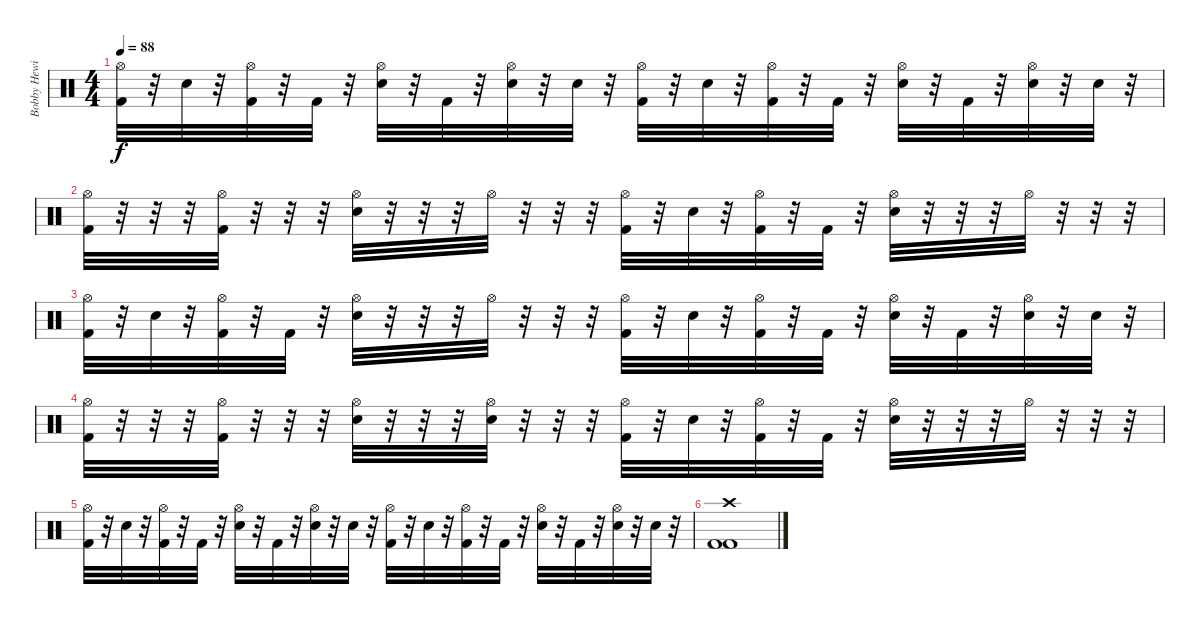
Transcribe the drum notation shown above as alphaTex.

\track ("Bobby Hewit - Drums" "Bobby Hewi") {instrument percussion}
\staff {score}
\articulation defaults
\ts (4 4)
\tempo 88
\clef neutral
\ks c
("Hi-Hat (open)" "Kick (hit) 2").32{dy f} r.32 "Electric Snare (hit)".32 r.32 ("Hi-Hat (open)" "Kick (hit) 2").32 r.32 "Kick (hit) 2".32 r.32 ("Hi-Hat (open)" "Electric Snare (hit)").32 r.32 "Kick (hit) 2".32 r.32 ("Hi-Hat (open)" "Electric Snare (hit)").32 r.32 "Electric Snare (hit)".32 r.32 ("Hi-Hat (open)" "Kick (hit) 2").32 r.32 "Electric Snare (hit)".32 r.32 ("Hi-Hat (open)" "Kick (hit) 2").32 r.32 "Kick (hit) 2".32 r.32 ("Hi-Hat (open)" "Electric Snare (hit)").32 r.32 "Kick (hit) 2".32 r.32 ("Hi-Hat (open)" "Electric Snare (hit)").32 r.32 "Electric Snare (hit)".32 r.32 |
("Hi-Hat (open)" "Kick (hit) 2").32 r.32 r.32 r.32 ("Hi-Hat (open)" "Kick (hit) 2").32 r.32 r.32 r.32 ("Hi-Hat (open)" "Electric Snare (hit)").32 r.32 r.32 r.32 "Hi-Hat (open)".32 r.32 r.32 r.32 ("Hi-Hat (open)" "Kick (hit) 2").32 r.32 "Electric Snare (hit)".32 r.32 ("Hi-Hat (open)" "Kick (hit) 2").32 r.32 "Kick (hit) 2".32 r.32 ("Hi-Hat (open)" "Electric Snare (hit)").32 r.32 r.32 r.32 "Hi-Hat (open)".32 r.32 r.32 r.32 |
("Hi-Hat (open)" "Kick (hit) 2").32 r.32 "Electric Snare (hit)".32 r.32 ("Hi-Hat (open)" "Kick (hit) 2").32 r.32 "Kick (hit) 2".32 r.32 ("Hi-Hat (open)" "Electric Snare (hit)").32 r.32 r.32 r.32 "Hi-Hat (open)".32 r.32 r.32 r.32 ("Hi-Hat (open)" "Kick (hit) 2").32 r.32 "Electric Snare (hit)".32 r.32 ("Hi-Hat (open)" "Kick (hit) 2").32 r.32 "Kick (hit) 2".32 r.32 ("Hi-Hat (open)" "Electric Snare (hit)").32 r.32 "Kick (hit) 2".32 r.32 ("Hi-Hat (open)" "Electric Snare (hit)").32 r.32 "Electric Snare (hit)".32 r.32 |
("Hi-Hat (open)" "Kick (hit) 2").32 r.32 r.32 r.32 ("Hi-Hat (open)" "Kick (hit) 2").32 r.32 r.32 r.32 ("Hi-Hat (open)" "Electric Snare (hit)").32 r.32 r.32 r.32 ("Hi-Hat (open)" "Electric Snare (hit)").32 r.32 r.32 r.32 ("Hi-Hat (open)" "Kick (hit) 2").32 r.32 "Electric Snare (hit)".32 r.32 ("Hi-Hat (open)" "Kick (hit) 2").32 r.32 "Kick (hit) 2".32 r.32 ("Hi-Hat (open)" "Electric Snare (hit)").32 r.32 r.32 r.32 "Hi-Hat (open)".32 r.32 r.32 r.32 |
("Hi-Hat (open)" "Kick (hit) 2").32 r.32 "Electric Snare (hit)".32 r.32 ("Hi-Hat (open)" "Kick (hit) 2").32 r.32 "Kick (hit) 2".32 r.32 ("Hi-Hat (open)" "Electric Snare (hit)").32 r.32 "Kick (hit) 2".32 r.32 ("Hi-Hat (open)" "Electric Snare (hit)").32 r.32 "Electric Snare (hit)".32 r.32 ("Hi-Hat (open)" "Kick (hit) 2").32 r.32 "Electric Snare (hit)".32 r.32 ("Hi-Hat (open)" "Kick (hit) 2").32 r.32 "Kick (hit) 2".32 r.32 ("Hi-Hat (open)" "Electric Snare (hit)").32 r.32 "Kick (hit) 2".32 r.32 ("Hi-Hat (open)" "Electric Snare (hit)").32 r.32 "Electric Snare (hit)".32 r.32 |
("Crash high (hit)" "Kick (hit) 2" "Kick (hit) 2").1
